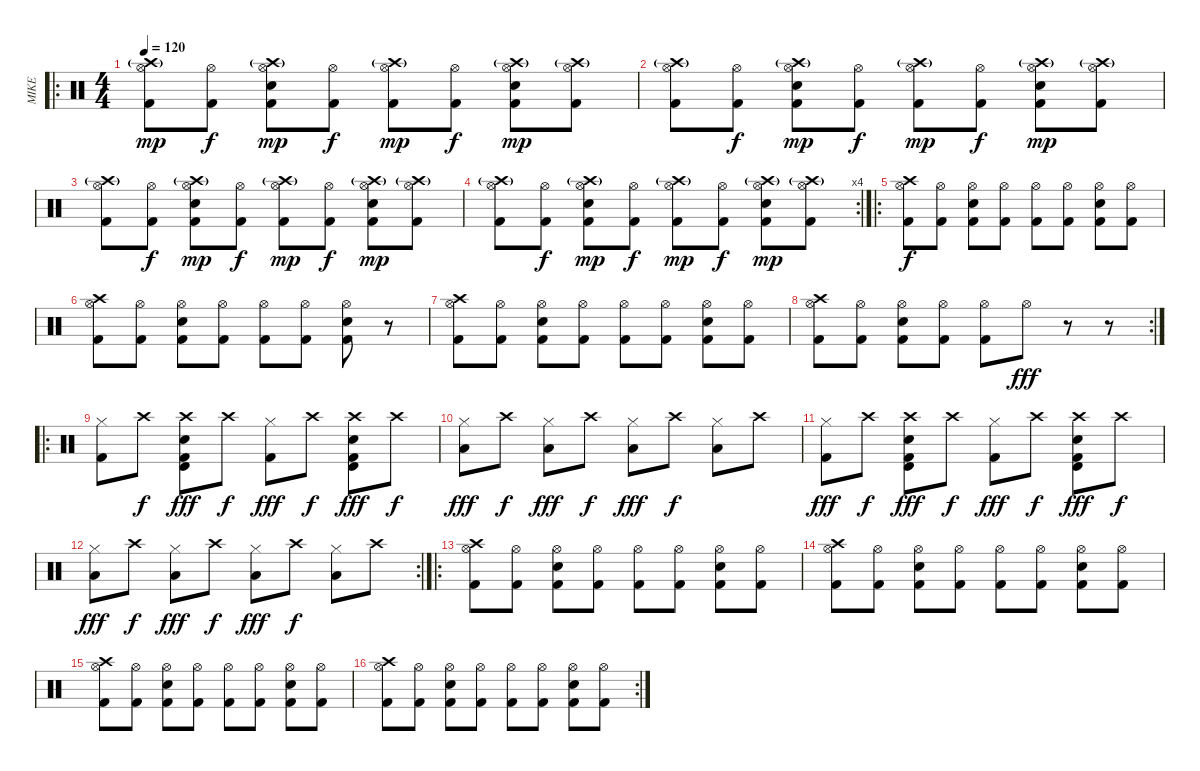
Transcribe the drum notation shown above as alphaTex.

\track ("MIKE" "MIKE") {instrument percussion}
\staff {score}
\articulation defaults
\ro
\ts (4 4)
\tempo 120
\clef neutral
\ks c
("Crash high (hit)"{g} "Hi-Hat (open)" "Kick (hit) 2").8{dy mp} ("Hi-Hat (open)" "Kick (hit) 2").8{dy f} ("Crash high (hit)"{g} "Hi-Hat (open)" "Snare (hit) 2" "Kick (hit) 2").8{dy mp} ("Hi-Hat (open)" "Kick (hit) 2").8{dy f} ("Crash high (hit)"{g} "Hi-Hat (open)" "Kick (hit) 2").8{dy mp} ("Hi-Hat (open)" "Kick (hit) 2").8{dy f} ("Crash high (hit)"{g} "Hi-Hat (open)" "Snare (hit) 2" "Kick (hit) 2").8{dy mp} ("Crash high (hit)"{g} "Hi-Hat (open)" "Kick (hit) 2").8 |
("Crash high (hit)"{g} "Hi-Hat (open)" "Kick (hit) 2").8 ("Hi-Hat (open)" "Kick (hit) 2").8{dy f} ("Crash high (hit)"{g} "Hi-Hat (open)" "Snare (hit) 2" "Kick (hit) 2").8{dy mp} ("Hi-Hat (open)" "Kick (hit) 2").8{dy f} ("Crash high (hit)"{g} "Hi-Hat (open)" "Kick (hit) 2").8{dy mp} ("Hi-Hat (open)" "Kick (hit) 2").8{dy f} ("Crash high (hit)"{g} "Hi-Hat (open)" "Snare (hit) 2" "Kick (hit) 2").8{dy mp} ("Crash high (hit)"{g} "Hi-Hat (open)" "Kick (hit) 2").8 |
("Crash high (hit)"{g} "Hi-Hat (open)" "Kick (hit) 2").8 ("Hi-Hat (open)" "Kick (hit) 2").8{dy f} ("Crash high (hit)"{g} "Hi-Hat (open)" "Snare (hit) 2" "Kick (hit) 2").8{dy mp} ("Hi-Hat (open)" "Kick (hit) 2").8{dy f} ("Crash high (hit)"{g} "Hi-Hat (open)" "Kick (hit) 2").8{dy mp} ("Hi-Hat (open)" "Kick (hit) 2").8{dy f} ("Crash high (hit)"{g} "Hi-Hat (open)" "Snare (hit) 2" "Kick (hit) 2").8{dy mp} ("Crash high (hit)"{g} "Hi-Hat (open)" "Kick (hit) 2").8 |
\rc 4
("Crash high (hit)"{g} "Hi-Hat (open)" "Kick (hit) 2").8 ("Hi-Hat (open)" "Kick (hit) 2").8{dy f} ("Crash high (hit)"{g} "Hi-Hat (open)" "Snare (hit) 2" "Kick (hit) 2").8{dy mp} ("Hi-Hat (open)" "Kick (hit) 2").8{dy f} ("Crash high (hit)"{g} "Hi-Hat (open)" "Kick (hit) 2").8{dy mp} ("Hi-Hat (open)" "Kick (hit) 2").8{dy f} ("Crash high (hit)"{g} "Hi-Hat (open)" "Snare (hit) 2" "Kick (hit) 2").8{dy mp} ("Crash high (hit)"{g} "Hi-Hat (open)" "Kick (hit) 2").8 |
\ro
("Crash high (hit)" "Hi-Hat (open)" "Kick (hit) 2").8{dy f} ("Hi-Hat (open)" "Kick (hit) 2").8 ("Hi-Hat (open)" "Snare (hit) 2" "Kick (hit) 2").8 ("Hi-Hat (open)" "Kick (hit) 2").8 ("Hi-Hat (open)" "Kick (hit) 2").8 ("Hi-Hat (open)" "Kick (hit) 2").8 ("Hi-Hat (open)" "Snare (hit) 2" "Kick (hit) 2").8 ("Hi-Hat (open)" "Kick (hit) 2").8 |
("Crash high (hit)" "Hi-Hat (open)" "Kick (hit) 2").8 ("Hi-Hat (open)" "Kick (hit) 2").8 ("Hi-Hat (open)" "Snare (hit) 2" "Kick (hit) 2").8 ("Hi-Hat (open)" "Kick (hit) 2").8 ("Hi-Hat (open)" "Kick (hit) 2").8 ("Hi-Hat (open)" "Kick (hit) 2").8 ("Hi-Hat (open)" "Snare (hit) 2" "Kick (hit) 2").8 r.8 |
("Crash high (hit)" "Hi-Hat (open)" "Kick (hit) 2").8 ("Hi-Hat (open)" "Kick (hit) 2").8 ("Hi-Hat (open)" "Snare (hit) 2" "Kick (hit) 2").8 ("Hi-Hat (open)" "Kick (hit) 2").8 ("Hi-Hat (open)" "Kick (hit) 2").8 ("Hi-Hat (open)" "Kick (hit) 2").8 ("Hi-Hat (open)" "Snare (hit) 2" "Kick (hit) 2").8 ("Hi-Hat (open)" "Kick (hit) 2").8 |
\rc 2
("Crash high (hit)" "Hi-Hat (open)" "Kick (hit) 2").8 ("Hi-Hat (open)" "Kick (hit) 2").8 ("Hi-Hat (open)" "Snare (hit) 2" "Kick (hit) 2").8 ("Hi-Hat (open)" "Kick (hit) 2").8 ("Hi-Hat (open)" "Kick (hit) 2").8 "Hi-Hat (open)".8{dy fff} r.8 r.8 |
\ro
("Hi-Hat (closed)" "Kick (hit) 2").8 "Crash high (hit)".8{dy f} ("Electric Snare (hit)" "Kick (hit) 2" "Crash high (hit)" "Timbale high (hit)").8{dy fff} "Crash high (hit)".8{dy f} ("Hi-Hat (closed)" "Kick (hit) 2").8{dy fff} "Crash high (hit)".8{dy f} ("Electric Snare (hit)" "Kick (hit) 2" "Crash high (hit)" "Timbale high (hit)").8{dy fff} "Crash high (hit)".8{dy f} |
("Low Floor Tom (hit)" "Hi-Hat (closed)").8{dy fff} "Crash high (hit)".8{dy f} ("Low Floor Tom (hit)" "Hi-Hat (closed)").8{dy fff} "Crash high (hit)".8{dy f} ("Low Floor Tom (hit)" "Hi-Hat (closed)").8{dy fff} "Crash high (hit)".8{dy f} ("Low Floor Tom (hit)" "Hi-Hat (closed)").8 "Crash high (hit)".8 |
("Hi-Hat (closed)" "Kick (hit) 2").8{dy fff} "Crash high (hit)".8{dy f} ("Electric Snare (hit)" "Kick (hit) 2" "Crash high (hit)" "Timbale high (hit)").8{dy fff} "Crash high (hit)".8{dy f} ("Hi-Hat (closed)" "Kick (hit) 2").8{dy fff} "Crash high (hit)".8{dy f} ("Electric Snare (hit)" "Kick (hit) 2" "Crash high (hit)" "Timbale high (hit)").8{dy fff} "Crash high (hit)".8{dy f} |
\rc 2
("Low Floor Tom (hit)" "Hi-Hat (closed)").8{dy fff} "Crash high (hit)".8{dy f} ("Low Floor Tom (hit)" "Hi-Hat (closed)").8{dy fff} "Crash high (hit)".8{dy f} ("Low Floor Tom (hit)" "Hi-Hat (closed)").8{dy fff} "Crash high (hit)".8{dy f} ("Low Floor Tom (hit)" "Hi-Hat (closed)").8 "Crash high (hit)".8 |
\ro
("Crash high (hit)" "Hi-Hat (open)" "Kick (hit) 2").8 ("Hi-Hat (open)" "Kick (hit) 2").8 ("Hi-Hat (open)" "Snare (hit) 2" "Kick (hit) 2").8 ("Hi-Hat (open)" "Kick (hit) 2").8 ("Hi-Hat (open)" "Kick (hit) 2").8 ("Hi-Hat (open)" "Kick (hit) 2").8 ("Hi-Hat (open)" "Snare (hit) 2" "Kick (hit) 2").8 ("Hi-Hat (open)" "Kick (hit) 2").8 |
("Crash high (hit)" "Hi-Hat (open)" "Kick (hit) 2").8 ("Hi-Hat (open)" "Kick (hit) 2").8 ("Hi-Hat (open)" "Snare (hit) 2" "Kick (hit) 2").8 ("Hi-Hat (open)" "Kick (hit) 2").8 ("Hi-Hat (open)" "Kick (hit) 2").8 ("Hi-Hat (open)" "Kick (hit) 2").8 ("Hi-Hat (open)" "Snare (hit) 2" "Kick (hit) 2").8 ("Hi-Hat (open)" "Kick (hit) 2").8 |
("Crash high (hit)" "Hi-Hat (open)" "Kick (hit) 2").8 ("Hi-Hat (open)" "Kick (hit) 2").8 ("Hi-Hat (open)" "Snare (hit) 2" "Kick (hit) 2").8 ("Hi-Hat (open)" "Kick (hit) 2").8 ("Hi-Hat (open)" "Kick (hit) 2").8 ("Hi-Hat (open)" "Kick (hit) 2").8 ("Hi-Hat (open)" "Snare (hit) 2" "Kick (hit) 2").8 ("Hi-Hat (open)" "Kick (hit) 2").8 |
\rc 2
("Crash high (hit)" "Hi-Hat (open)" "Kick (hit) 2").8 ("Hi-Hat (open)" "Kick (hit) 2").8 ("Hi-Hat (open)" "Snare (hit) 2" "Kick (hit) 2").8 ("Hi-Hat (open)" "Kick (hit) 2").8 ("Hi-Hat (open)" "Kick (hit) 2").8 ("Hi-Hat (open)" "Kick (hit) 2").8 ("Hi-Hat (open)" "Snare (hit) 2" "Kick (hit) 2").8 ("Hi-Hat (open)" "Kick (hit) 2").8
